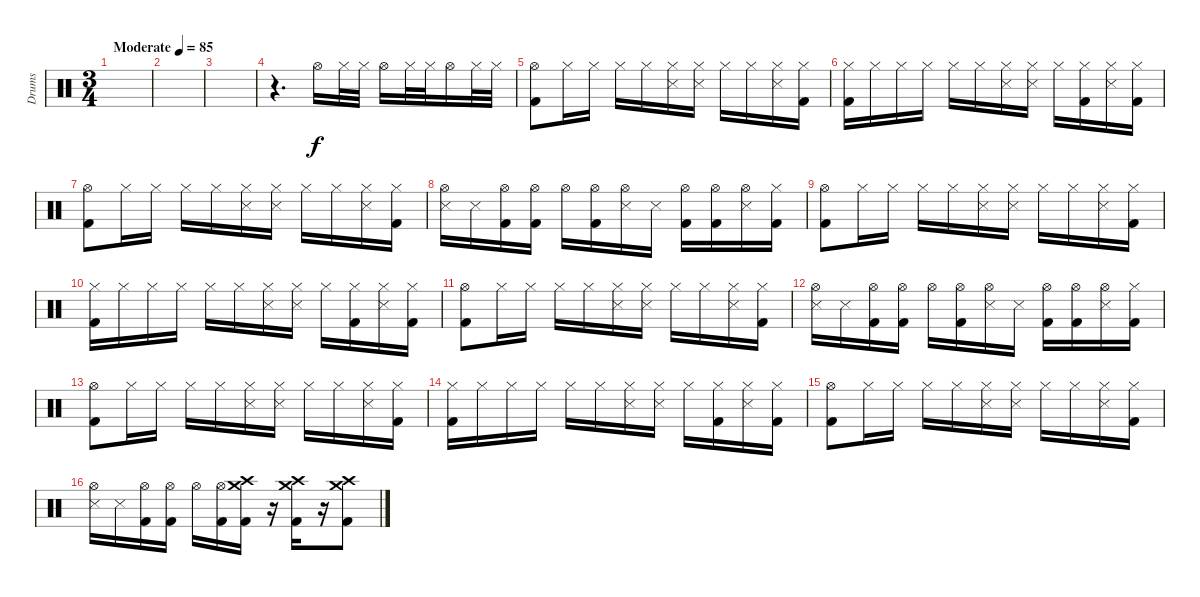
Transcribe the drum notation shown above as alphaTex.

\track ("Drums" "Drums") {instrument percussion}
\staff {score}
\articulation defaults
\ts (3 4)
\tempo (85 "Moderate")
\clef neutral
\ks c
|
|
|
r.4{d} "Hi-Hat (open)".16 "Hi-Hat (closed)".32 "Hi-Hat (closed)".32 "Hi-Hat (open)".16 "Hi-Hat (closed)".32 "Hi-Hat (closed)".32 "Hi-Hat (open)".16 "Hi-Hat (closed)".32 "Hi-Hat (closed)".32 |
("Hi-Hat (open)" "Kick (hit) 2").8 "Hi-Hat (closed)".16 "Hi-Hat (closed)".16 "Hi-Hat (closed)".16 "Hi-Hat (closed)".16 ("Hi-Hat (closed)" "Snare (side stick) 3").16 ("Hi-Hat (closed)" "Snare (side stick) 3").16 "Hi-Hat (closed)".16 "Hi-Hat (closed)".16 ("Hi-Hat (closed)" "Snare (side stick) 3").16 ("Hi-Hat (closed)" "Kick (hit) 2").16 |
("Hi-Hat (closed)" "Kick (hit) 2").16 "Hi-Hat (closed)".16 "Hi-Hat (closed)".16 "Hi-Hat (closed)".16 "Hi-Hat (closed)".16 "Hi-Hat (closed)".16 ("Hi-Hat (closed)" "Snare (side stick) 3").16 ("Hi-Hat (closed)" "Snare (side stick) 3").16 "Hi-Hat (closed)".16 ("Hi-Hat (closed)" "Kick (hit) 2").16 ("Hi-Hat (closed)" "Snare (side stick) 3").16 ("Hi-Hat (closed)" "Kick (hit) 2").16 |
("Hi-Hat (open)" "Kick (hit) 2").8 "Hi-Hat (closed)".16 "Hi-Hat (closed)".16 "Hi-Hat (closed)".16 "Hi-Hat (closed)".16 ("Hi-Hat (closed)" "Snare (side stick) 3").16 ("Hi-Hat (closed)" "Snare (side stick) 3").16 "Hi-Hat (closed)".16 "Hi-Hat (closed)".16 ("Hi-Hat (closed)" "Snare (side stick) 3").16 ("Hi-Hat (closed)" "Kick (hit) 2").16 |
("Hi-Hat (open)" "Snare (side stick) 3").16 "Snare (side stick) 3".16 ("Hi-Hat (open)" "Kick (hit) 2").16 ("Hi-Hat (open)" "Kick (hit) 2").16 "Hi-Hat (open)".16 ("Hi-Hat (open)" "Kick (hit) 2").16 ("Hi-Hat (open)" "Snare (side stick) 3").16 "Snare (side stick) 3".16 ("Hi-Hat (open)" "Kick (hit) 2").16 ("Hi-Hat (open)" "Kick (hit) 2").16 ("Hi-Hat (open)" "Snare (side stick) 3").16 ("Hi-Hat (closed)" "Kick (hit) 2").16 |
("Hi-Hat (open)" "Kick (hit) 2").8 "Hi-Hat (closed)".16 "Hi-Hat (closed)".16 "Hi-Hat (closed)".16 "Hi-Hat (closed)".16 ("Hi-Hat (closed)" "Snare (side stick) 3").16 ("Hi-Hat (closed)" "Snare (side stick) 3").16 "Hi-Hat (closed)".16 "Hi-Hat (closed)".16 ("Hi-Hat (closed)" "Snare (side stick) 3").16 ("Hi-Hat (closed)" "Kick (hit) 2").16 |
("Hi-Hat (closed)" "Kick (hit) 2").16 "Hi-Hat (closed)".16 "Hi-Hat (closed)".16 "Hi-Hat (closed)".16 "Hi-Hat (closed)".16 "Hi-Hat (closed)".16 ("Hi-Hat (closed)" "Snare (side stick) 3").16 ("Hi-Hat (closed)" "Snare (side stick) 3").16 "Hi-Hat (closed)".16 ("Hi-Hat (closed)" "Kick (hit) 2").16 ("Hi-Hat (closed)" "Snare (side stick) 3").16 ("Hi-Hat (closed)" "Kick (hit) 2").16 |
("Hi-Hat (open)" "Kick (hit) 2").8 "Hi-Hat (closed)".16 "Hi-Hat (closed)".16 "Hi-Hat (closed)".16 "Hi-Hat (closed)".16 ("Hi-Hat (closed)" "Snare (side stick) 3").16 ("Hi-Hat (closed)" "Snare (side stick) 3").16 "Hi-Hat (closed)".16 "Hi-Hat (closed)".16 ("Hi-Hat (closed)" "Snare (side stick) 3").16 ("Hi-Hat (closed)" "Kick (hit) 2").16 |
("Hi-Hat (open)" "Snare (side stick) 3").16 "Snare (side stick) 3".16 ("Hi-Hat (open)" "Kick (hit) 2").16 ("Hi-Hat (open)" "Kick (hit) 2").16 "Hi-Hat (open)".16 ("Hi-Hat (open)" "Kick (hit) 2").16 ("Hi-Hat (open)" "Snare (side stick) 3").16 "Snare (side stick) 3".16 ("Hi-Hat (open)" "Kick (hit) 2").16 ("Hi-Hat (open)" "Kick (hit) 2").16 ("Hi-Hat (open)" "Snare (side stick) 3").16 ("Hi-Hat (closed)" "Kick (hit) 2").16 |
("Hi-Hat (open)" "Kick (hit) 2").8 "Hi-Hat (closed)".16 "Hi-Hat (closed)".16 "Hi-Hat (closed)".16 "Hi-Hat (closed)".16 ("Hi-Hat (closed)" "Snare (side stick) 3").16 ("Hi-Hat (closed)" "Snare (side stick) 3").16 "Hi-Hat (closed)".16 "Hi-Hat (closed)".16 ("Hi-Hat (closed)" "Snare (side stick) 3").16 ("Hi-Hat (closed)" "Kick (hit) 2").16 |
("Hi-Hat (closed)" "Kick (hit) 2").16 "Hi-Hat (closed)".16 "Hi-Hat (closed)".16 "Hi-Hat (closed)".16 "Hi-Hat (closed)".16 "Hi-Hat (closed)".16 ("Hi-Hat (closed)" "Snare (side stick) 3").16 ("Hi-Hat (closed)" "Snare (side stick) 3").16 "Hi-Hat (closed)".16 ("Hi-Hat (closed)" "Kick (hit) 2").16 ("Hi-Hat (closed)" "Snare (side stick) 3").16 ("Hi-Hat (closed)" "Kick (hit) 2").16 |
("Hi-Hat (open)" "Kick (hit) 2").8 "Hi-Hat (closed)".16 "Hi-Hat (closed)".16 "Hi-Hat (closed)".16 "Hi-Hat (closed)".16 ("Hi-Hat (closed)" "Snare (side stick) 3").16 ("Hi-Hat (closed)" "Snare (side stick) 3").16 "Hi-Hat (closed)".16 "Hi-Hat (closed)".16 ("Hi-Hat (closed)" "Snare (side stick) 3").16 ("Hi-Hat (closed)" "Kick (hit) 2").16 |
("Hi-Hat (open)" "Snare (side stick) 3").16 "Snare (side stick) 3".16 ("Hi-Hat (open)" "Kick (hit) 2").16 ("Hi-Hat (open)" "Kick (hit) 2").16 "Hi-Hat (open)".16 ("Hi-Hat (open)" "Kick (hit) 2").16 ("Crash high (hit)" "Crash medium (hit)" "Kick (hit) 2").16 r.16 ("Crash high (hit)" "Crash medium (hit)" "Kick (hit) 2").16 r.16 ("Crash high (hit)" "Crash medium (hit)" "Kick (hit) 2").8
